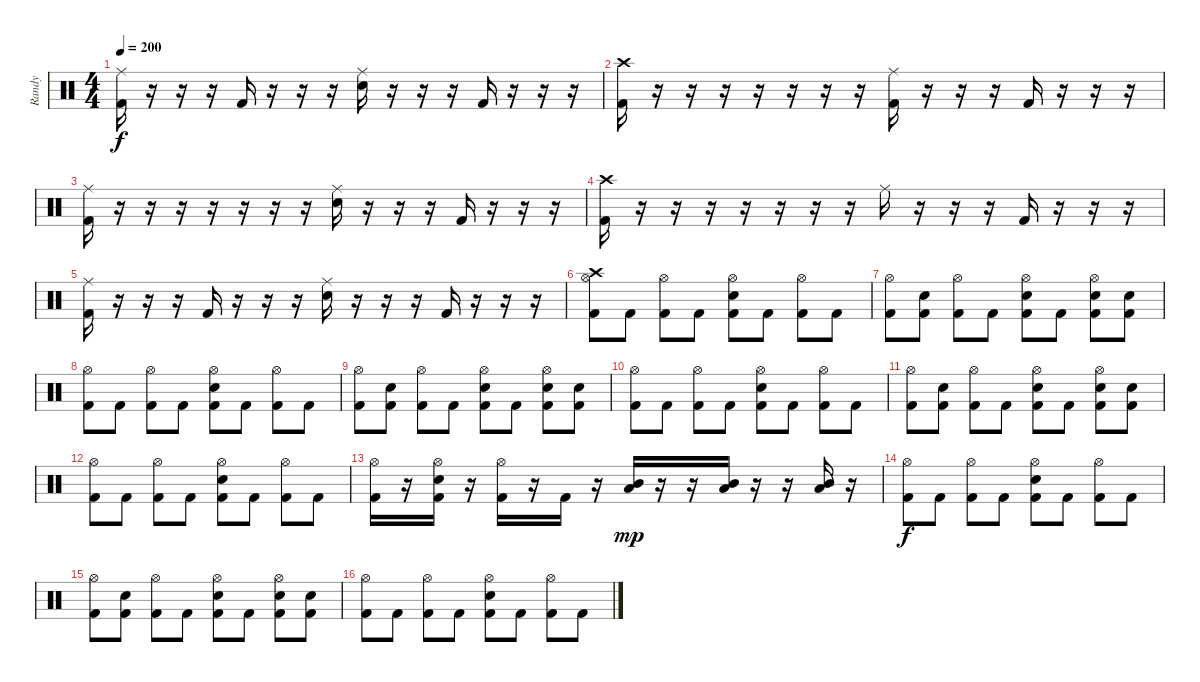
\track ("Randy" "Randy") {instrument percussion}
\staff {score}
\articulation defaults
\ts (4 4)
\tempo 200
\clef neutral
\ks c
("Kick (hit) 2" "Ride (middle)").16{dy f} r.16 r.16 r.16 "Kick (hit) 2".16 r.16 r.16 r.16 ("Electric Snare (hit)" "Ride (middle)").16 r.16 r.16 r.16 "Kick (hit) 2".16 r.16 r.16 r.16 |
("Kick (hit) 2" "Crash high (hit)").16 r.16 r.16 r.16 r.16 r.16 r.16 r.16 ("Kick (hit) 2" "Ride (middle)").16 r.16 r.16 r.16 "Kick (hit) 2".16 r.16 r.16 r.16 |
("Kick (hit) 2" "Ride (middle)").16 r.16 r.16 r.16 r.16 r.16 r.16 r.16 ("Electric Snare (hit)" "Ride (middle)").16 r.16 r.16 r.16 "Kick (hit) 2".16 r.16 r.16 r.16 |
("Kick (hit) 2" "Crash high (hit)").16 r.16 r.16 r.16 r.16 r.16 r.16 r.16 "Ride (middle)".16 r.16 r.16 r.16 "Kick (hit) 2".16 r.16 r.16 r.16 |
("Kick (hit) 2" "Ride (middle)").16 r.16 r.16 r.16 "Kick (hit) 2".16 r.16 r.16 r.16 ("Electric Snare (hit)" "Ride (middle)").16 r.16 r.16 r.16 "Kick (hit) 2".16 r.16 r.16 r.16 |
("Kick (hit) 2" "Crash high (hit)" "Hi-Hat (open)").8 "Kick (hit) 2".8 ("Kick (hit) 2" "Hi-Hat (open)").8 "Kick (hit) 2".8 ("Kick (hit) 2" "Electric Snare (hit)" "Hi-Hat (open)").8 "Kick (hit) 2".8 ("Kick (hit) 2" "Hi-Hat (open)").8 "Kick (hit) 2".8 |
("Kick (hit) 2" "Hi-Hat (open)").8 ("Kick (hit) 2" "Electric Snare (hit)").8 ("Kick (hit) 2" "Hi-Hat (open)").8 "Kick (hit) 2".8 ("Kick (hit) 2" "Electric Snare (hit)" "Hi-Hat (open)").8 "Kick (hit) 2".8 ("Kick (hit) 2" "Electric Snare (hit)" "Hi-Hat (open)").8 ("Kick (hit) 2" "Electric Snare (hit)").8 |
("Kick (hit) 2" "Hi-Hat (open)").8 "Kick (hit) 2".8 ("Kick (hit) 2" "Hi-Hat (open)").8 "Kick (hit) 2".8 ("Kick (hit) 2" "Electric Snare (hit)" "Hi-Hat (open)").8 "Kick (hit) 2".8 ("Kick (hit) 2" "Hi-Hat (open)").8 "Kick (hit) 2".8 |
("Kick (hit) 2" "Hi-Hat (open)").8 ("Kick (hit) 2" "Electric Snare (hit)").8 ("Kick (hit) 2" "Hi-Hat (open)").8 "Kick (hit) 2".8 ("Kick (hit) 2" "Electric Snare (hit)" "Hi-Hat (open)").8 "Kick (hit) 2".8 ("Kick (hit) 2" "Electric Snare (hit)" "Hi-Hat (open)").8 ("Kick (hit) 2" "Electric Snare (hit)").8 |
("Kick (hit) 2" "Hi-Hat (open)").8 "Kick (hit) 2".8 ("Kick (hit) 2" "Hi-Hat (open)").8 "Kick (hit) 2".8 ("Kick (hit) 2" "Electric Snare (hit)" "Hi-Hat (open)").8 "Kick (hit) 2".8 ("Kick (hit) 2" "Hi-Hat (open)").8 "Kick (hit) 2".8 |
("Kick (hit) 2" "Hi-Hat (open)").8 ("Kick (hit) 2" "Electric Snare (hit)").8 ("Kick (hit) 2" "Hi-Hat (open)").8 "Kick (hit) 2".8 ("Kick (hit) 2" "Electric Snare (hit)" "Hi-Hat (open)").8 "Kick (hit) 2".8 ("Kick (hit) 2" "Electric Snare (hit)" "Hi-Hat (open)").8 ("Kick (hit) 2" "Electric Snare (hit)").8 |
("Kick (hit) 2" "Hi-Hat (open)").8 "Kick (hit) 2".8 ("Kick (hit) 2" "Hi-Hat (open)").8 "Kick (hit) 2".8 ("Kick (hit) 2" "Electric Snare (hit)" "Hi-Hat (open)").8 "Kick (hit) 2".8 ("Kick (hit) 2" "Hi-Hat (open)").8 "Kick (hit) 2".8 |
("Kick (hit) 2" "Hi-Hat (open)").16 r.16 ("Kick (hit) 2" "Electric Snare (hit)" "Hi-Hat (open)").16 r.16 ("Kick (hit) 2" "Hi-Hat (open)").16 r.16 "Kick (hit) 2".16 r.16 ("Mid Tom (hit)" "Low Tom (hit)").16{dy mp} r.16 r.16 ("Mid Tom (hit)" "Low Tom (hit)").16 r.16 r.16 ("Mid Tom (hit)" "Low Tom (hit)").16 r.16 |
("Kick (hit) 2" "Hi-Hat (open)").8{dy f} "Kick (hit) 2".8 ("Kick (hit) 2" "Hi-Hat (open)").8 "Kick (hit) 2".8 ("Kick (hit) 2" "Electric Snare (hit)" "Hi-Hat (open)").8 "Kick (hit) 2".8 ("Kick (hit) 2" "Hi-Hat (open)").8 "Kick (hit) 2".8 |
("Kick (hit) 2" "Hi-Hat (open)").8 ("Kick (hit) 2" "Electric Snare (hit)").8 ("Kick (hit) 2" "Hi-Hat (open)").8 "Kick (hit) 2".8 ("Kick (hit) 2" "Electric Snare (hit)" "Hi-Hat (open)").8 "Kick (hit) 2".8 ("Kick (hit) 2" "Electric Snare (hit)" "Hi-Hat (open)").8 ("Kick (hit) 2" "Electric Snare (hit)").8 |
("Kick (hit) 2" "Hi-Hat (open)").8 "Kick (hit) 2".8 ("Kick (hit) 2" "Hi-Hat (open)").8 "Kick (hit) 2".8 ("Kick (hit) 2" "Electric Snare (hit)" "Hi-Hat (open)").8 "Kick (hit) 2".8 ("Kick (hit) 2" "Hi-Hat (open)").8 "Kick (hit) 2".8
